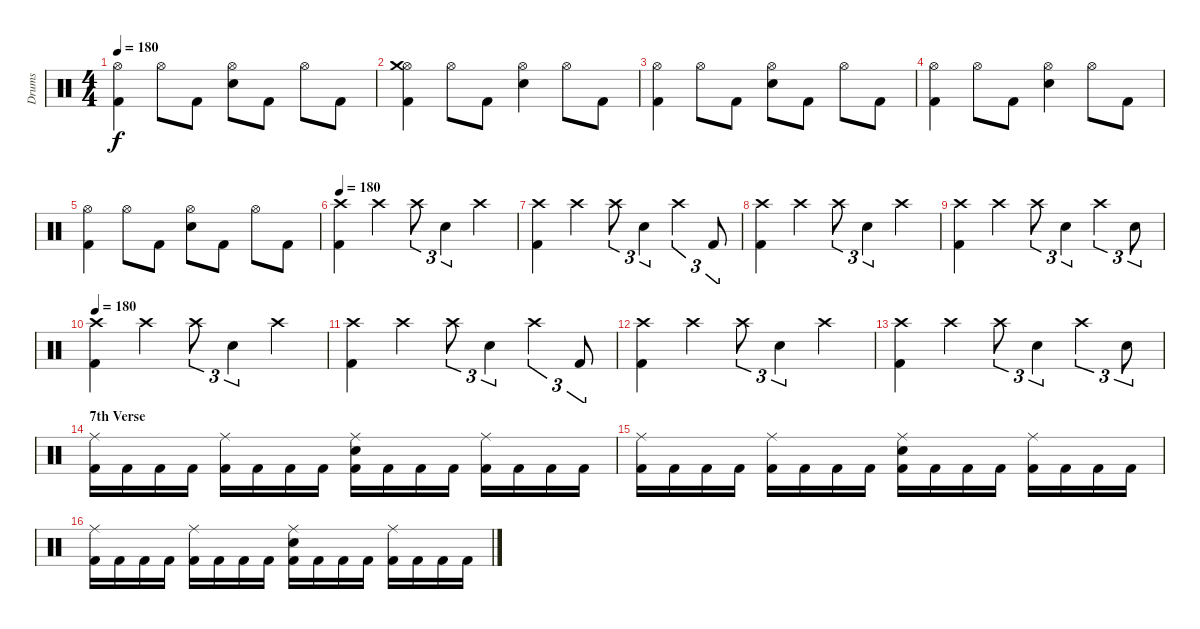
\track ("Drums" "Drums") {instrument percussion}
\staff {score}
\articulation defaults
\ts (4 4)
\tempo 180
\clef neutral
\ks c
("Kick (hit) 2" "Hi-Hat (open)").4{dy f} "Hi-Hat (open)".8 "Kick (hit) 2".8 ("Electric Snare (hit)" "Hi-Hat (open)").8 "Kick (hit) 2".8 "Hi-Hat (open)".8 "Kick (hit) 2".8 |
("Kick (hit) 2" "Hi-Hat (open)" "Crash medium (hit)").4 "Hi-Hat (open)".8 "Kick (hit) 2".8 ("Electric Snare (hit)" "Hi-Hat (open)").4 "Hi-Hat (open)".8 "Kick (hit) 2".8 |
("Kick (hit) 2" "Hi-Hat (open)").4 "Hi-Hat (open)".8 "Kick (hit) 2".8 ("Electric Snare (hit)" "Hi-Hat (open)").8 "Kick (hit) 2".8 "Hi-Hat (open)".8 "Kick (hit) 2".8 |
("Kick (hit) 2" "Hi-Hat (open)").4 "Hi-Hat (open)".8 "Kick (hit) 2".8 ("Electric Snare (hit)" "Hi-Hat (open)").4 "Hi-Hat (open)".8 "Kick (hit) 2".8 |
("Kick (hit) 2" "Hi-Hat (open)").4 "Hi-Hat (open)".8 "Kick (hit) 2".8 ("Electric Snare (hit)" "Hi-Hat (open)").8 "Kick (hit) 2".8 "Hi-Hat (open)".8 "Kick (hit) 2".8 |
\tempo 180
("Kick (hit) 2" "Crash high (hit)").4 "Crash high (hit)".4 "Crash high (hit)".8{tu (3 2)} "Electric Snare (hit)".4{tu (3 2)} "Crash high (hit)".4 |
("Kick (hit) 2" "Crash high (hit)").4 "Crash high (hit)".4 "Crash high (hit)".8{tu (3 2)} "Electric Snare (hit)".4{tu (3 2)} "Crash high (hit)".4{tu (3 2)} "Kick (hit) 2".8{tu (3 2)} |
("Kick (hit) 2" "Crash high (hit)").4 "Crash high (hit)".4 "Crash high (hit)".8{tu (3 2)} "Electric Snare (hit)".4{tu (3 2)} "Crash high (hit)".4 |
("Kick (hit) 2" "Crash high (hit)").4 "Crash high (hit)".4 "Crash high (hit)".8{tu (3 2)} "Electric Snare (hit)".4{tu (3 2)} "Crash high (hit)".4{tu (3 2)} "Electric Snare (hit)".8{tu (3 2)} |
\tempo 180
("Kick (hit) 2" "Crash high (hit)").4 "Crash high (hit)".4 "Crash high (hit)".8{tu (3 2)} "Electric Snare (hit)".4{tu (3 2)} "Crash high (hit)".4 |
("Kick (hit) 2" "Crash high (hit)").4 "Crash high (hit)".4 "Crash high (hit)".8{tu (3 2)} "Electric Snare (hit)".4{tu (3 2)} "Crash high (hit)".4{tu (3 2)} "Kick (hit) 2".8{tu (3 2)} |
("Kick (hit) 2" "Crash high (hit)").4 "Crash high (hit)".4 "Crash high (hit)".8{tu (3 2)} "Electric Snare (hit)".4{tu (3 2)} "Crash high (hit)".4 |
("Kick (hit) 2" "Crash high (hit)").4 "Crash high (hit)".4 "Crash high (hit)".8{tu (3 2)} "Electric Snare (hit)".4{tu (3 2)} "Crash high (hit)".4{tu (3 2)} "Electric Snare (hit)".8{tu (3 2)} |
\section ("" "7th Verse")
("Kick (hit) 2" "Ride (middle)").16 "Kick (hit) 2".16 "Kick (hit) 2".16 "Kick (hit) 2".16 ("Kick (hit) 2" "Ride (middle)").16 "Kick (hit) 2".16 "Kick (hit) 2".16 "Kick (hit) 2".16 ("Kick (hit) 2" "Electric Snare (hit)" "Ride (middle)").16 "Kick (hit) 2".16 "Kick (hit) 2".16 "Kick (hit) 2".16 ("Kick (hit) 2" "Ride (middle)").16 "Kick (hit) 2".16 "Kick (hit) 2".16 "Kick (hit) 2".16 |
("Kick (hit) 2" "Ride (middle)").16 "Kick (hit) 2".16 "Kick (hit) 2".16 "Kick (hit) 2".16 ("Kick (hit) 2" "Ride (middle)").16 "Kick (hit) 2".16 "Kick (hit) 2".16 "Kick (hit) 2".16 ("Kick (hit) 2" "Electric Snare (hit)" "Ride (middle)").16 "Kick (hit) 2".16 "Kick (hit) 2".16 "Kick (hit) 2".16 ("Kick (hit) 2" "Ride (middle)").16 "Kick (hit) 2".16 "Kick (hit) 2".16 "Kick (hit) 2".16 |
("Kick (hit) 2" "Ride (middle)").16 "Kick (hit) 2".16 "Kick (hit) 2".16 "Kick (hit) 2".16 ("Kick (hit) 2" "Ride (middle)").16 "Kick (hit) 2".16 "Kick (hit) 2".16 "Kick (hit) 2".16 ("Kick (hit) 2" "Electric Snare (hit)" "Ride (middle)").16 "Kick (hit) 2".16 "Kick (hit) 2".16 "Kick (hit) 2".16 ("Kick (hit) 2" "Ride (middle)").16 "Kick (hit) 2".16 "Kick (hit) 2".16 "Kick (hit) 2".16
